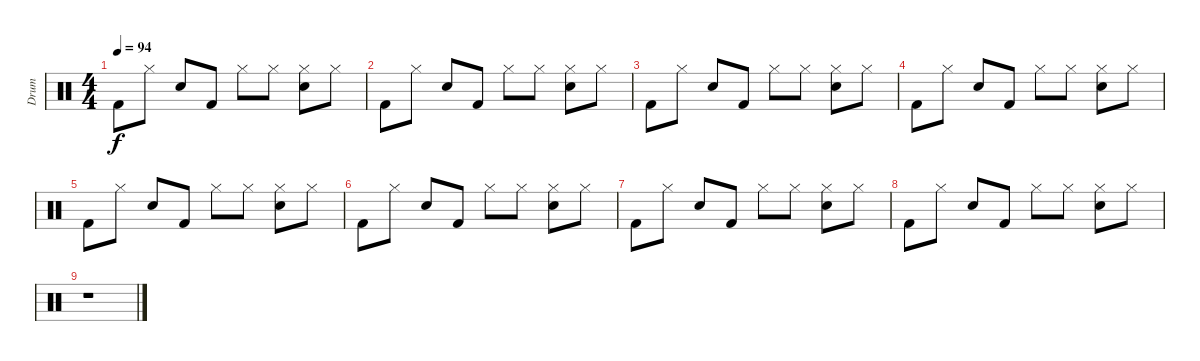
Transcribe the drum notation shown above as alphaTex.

\track ("Drum" "Drum") {instrument percussion}
\staff {score}
\articulation defaults
\ts (4 4)
\tempo 94
\clef neutral
\ks c "Kick (hit) 2".8{dy f} "Hi-Hat (closed)".8 "Electric Snare (hit)".8 "Kick (hit) 2".8 "Hi-Hat (closed)".8 "Hi-Hat (closed)".8
("Hi-Hat (closed)" "Electric Snare (hit)").8 "Hi-Hat (closed)".8 |
"Kick (hit) 2".8 "Hi-Hat (closed)".8 "Electric Snare (hit)".8 "Kick (hit) 2".8 "Hi-Hat (closed)".8 "Hi-Hat (closed)".8 ("Hi-Hat (closed)" "Electric Snare (hit)").8 "Hi-Hat (closed)".8 |
"Kick (hit) 2".8 "Hi-Hat (closed)".8 "Electric Snare (hit)".8 "Kick (hit) 2".8 "Hi-Hat (closed)".8 "Hi-Hat (closed)".8 ("Hi-Hat (closed)" "Electric Snare (hit)").8 "Hi-Hat (closed)".8 |
"Kick (hit) 2".8 "Hi-Hat (closed)".8 "Electric Snare (hit)".8 "Kick (hit) 2".8 "Hi-Hat (closed)".8 "Hi-Hat (closed)".8 ("Hi-Hat (closed)" "Electric Snare (hit)").8 "Hi-Hat (closed)".8 |
"Kick (hit) 2".8 "Hi-Hat (closed)".8 "Electric Snare (hit)".8 "Kick (hit) 2".8 "Hi-Hat (closed)".8 "Hi-Hat (closed)".8 ("Hi-Hat (closed)" "Electric Snare (hit)").8 "Hi-Hat (closed)".8 |
"Kick (hit) 2".8 "Hi-Hat (closed)".8 "Electric Snare (hit)".8 "Kick (hit) 2".8 "Hi-Hat (closed)".8 "Hi-Hat (closed)".8 ("Hi-Hat (closed)" "Electric Snare (hit)").8 "Hi-Hat (closed)".8 |
"Kick (hit) 2".8 "Hi-Hat (closed)".8 "Electric Snare (hit)".8 "Kick (hit) 2".8 "Hi-Hat (closed)".8 "Hi-Hat (closed)".8 ("Hi-Hat (closed)" "Electric Snare (hit)").8 "Hi-Hat (closed)".8 |
"Kick (hit) 2".8 "Hi-Hat (closed)".8 "Electric Snare (hit)".8 "Kick (hit) 2".8 "Hi-Hat (closed)".8 "Hi-Hat (closed)".8 ("Hi-Hat (closed)" "Electric Snare (hit)").8 "Hi-Hat (closed)".8 |
r.1
